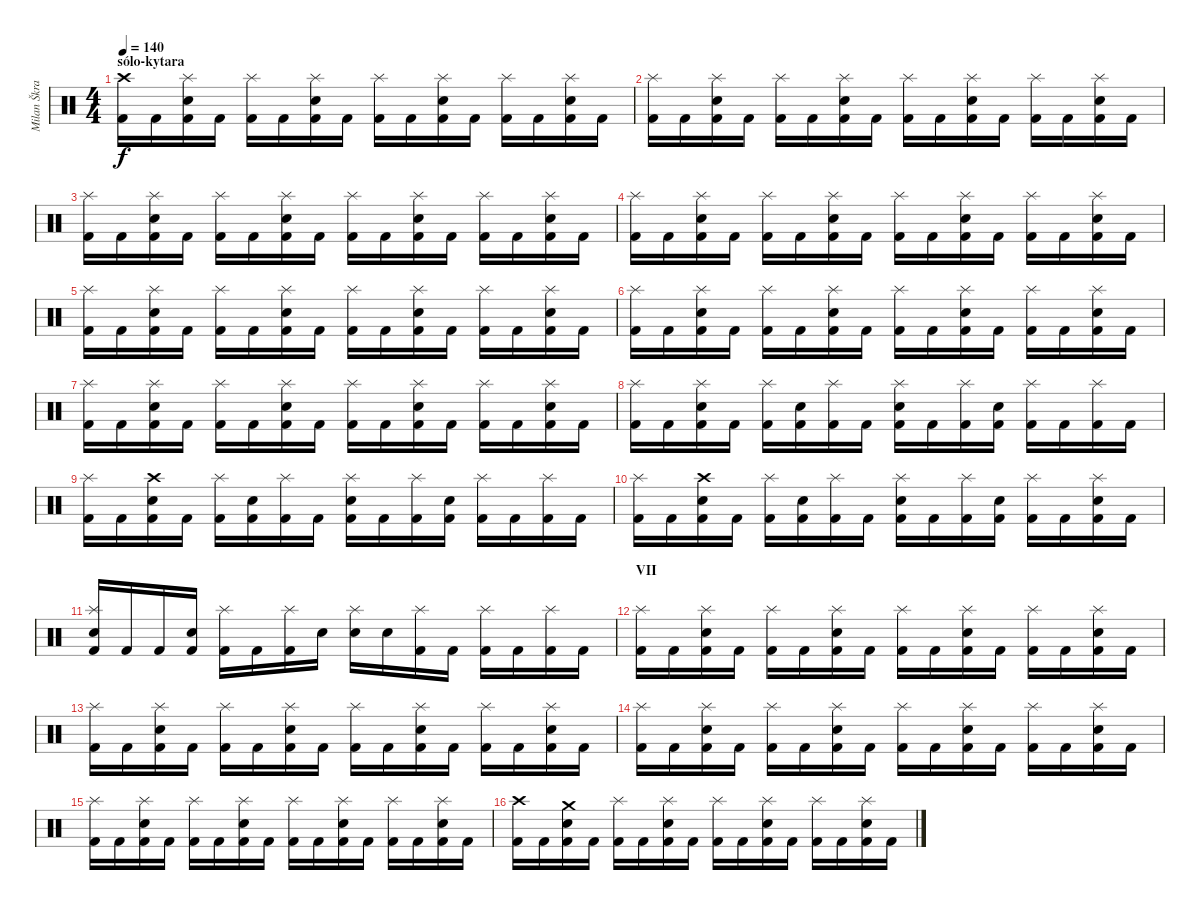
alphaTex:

\track ("Milan Škrabal" "Milan Škra") {instrument percussion}
\staff {score}
\articulation defaults
\ts (4 4)
\section ("" "sólo-kytara")
\tempo 140
\clef neutral
\ks c
("Crash high (hit)" "Kick (hit) 2").16{dy f} "Kick (hit) 2".16 ("Splash (hit)" "Electric Snare (hit)" "Kick (hit) 2").16 "Kick (hit) 2".16 ("Splash (hit)" "Kick (hit) 2").16 "Kick (hit) 2".16 ("Splash (hit)" "Electric Snare (hit)" "Kick (hit) 2").16 "Kick (hit) 2".16 ("Splash (hit)" "Kick (hit) 2").16 "Kick (hit) 2".16 ("Splash (hit)" "Electric Snare (hit)" "Kick (hit) 2").16 "Kick (hit) 2".16 ("Splash (hit)" "Kick (hit) 2").16 "Kick (hit) 2".16 ("Splash (hit)" "Electric Snare (hit)" "Kick (hit) 2").16 "Kick (hit) 2".16 |
("Splash (hit)" "Kick (hit) 2").16 "Kick (hit) 2".16 ("Splash (hit)" "Electric Snare (hit)" "Kick (hit) 2").16 "Kick (hit) 2".16 ("Splash (hit)" "Kick (hit) 2").16 "Kick (hit) 2".16 ("Splash (hit)" "Electric Snare (hit)" "Kick (hit) 2").16 "Kick (hit) 2".16 ("Splash (hit)" "Kick (hit) 2").16 "Kick (hit) 2".16 ("Splash (hit)" "Electric Snare (hit)" "Kick (hit) 2").16 "Kick (hit) 2".16 ("Splash (hit)" "Kick (hit) 2").16 "Kick (hit) 2".16 ("Splash (hit)" "Electric Snare (hit)" "Kick (hit) 2").16 "Kick (hit) 2".16 |
("Splash (hit)" "Kick (hit) 2").16 "Kick (hit) 2".16 ("Splash (hit)" "Electric Snare (hit)" "Kick (hit) 2").16 "Kick (hit) 2".16 ("Splash (hit)" "Kick (hit) 2").16 "Kick (hit) 2".16 ("Splash (hit)" "Electric Snare (hit)" "Kick (hit) 2").16 "Kick (hit) 2".16 ("Splash (hit)" "Kick (hit) 2").16 "Kick (hit) 2".16 ("Splash (hit)" "Electric Snare (hit)" "Kick (hit) 2").16 "Kick (hit) 2".16 ("Splash (hit)" "Kick (hit) 2").16 "Kick (hit) 2".16 ("Splash (hit)" "Electric Snare (hit)" "Kick (hit) 2").16 "Kick (hit) 2".16 |
("Splash (hit)" "Kick (hit) 2").16 "Kick (hit) 2".16 ("Splash (hit)" "Electric Snare (hit)" "Kick (hit) 2").16 "Kick (hit) 2".16 ("Splash (hit)" "Kick (hit) 2").16 "Kick (hit) 2".16 ("Splash (hit)" "Electric Snare (hit)" "Kick (hit) 2").16 "Kick (hit) 2".16 ("Splash (hit)" "Kick (hit) 2").16 "Kick (hit) 2".16 ("Splash (hit)" "Electric Snare (hit)" "Kick (hit) 2").16 "Kick (hit) 2".16 ("Splash (hit)" "Kick (hit) 2").16 "Kick (hit) 2".16 ("Splash (hit)" "Electric Snare (hit)" "Kick (hit) 2").16 "Kick (hit) 2".16 |
("Splash (hit)" "Kick (hit) 2").16 "Kick (hit) 2".16 ("Splash (hit)" "Electric Snare (hit)" "Kick (hit) 2").16 "Kick (hit) 2".16 ("Splash (hit)" "Kick (hit) 2").16 "Kick (hit) 2".16 ("Splash (hit)" "Electric Snare (hit)" "Kick (hit) 2").16 "Kick (hit) 2".16 ("Splash (hit)" "Kick (hit) 2").16 "Kick (hit) 2".16 ("Splash (hit)" "Electric Snare (hit)" "Kick (hit) 2").16 "Kick (hit) 2".16 ("Splash (hit)" "Kick (hit) 2").16 "Kick (hit) 2".16 ("Splash (hit)" "Electric Snare (hit)" "Kick (hit) 2").16 "Kick (hit) 2".16 |
("Splash (hit)" "Kick (hit) 2").16 "Kick (hit) 2".16 ("Splash (hit)" "Electric Snare (hit)" "Kick (hit) 2").16 "Kick (hit) 2".16 ("Splash (hit)" "Kick (hit) 2").16 "Kick (hit) 2".16 ("Splash (hit)" "Electric Snare (hit)" "Kick (hit) 2").16 "Kick (hit) 2".16 ("Splash (hit)" "Kick (hit) 2").16 "Kick (hit) 2".16 ("Splash (hit)" "Electric Snare (hit)" "Kick (hit) 2").16 "Kick (hit) 2".16 ("Splash (hit)" "Kick (hit) 2").16 "Kick (hit) 2".16 ("Splash (hit)" "Electric Snare (hit)" "Kick (hit) 2").16 "Kick (hit) 2".16 |
("Splash (hit)" "Kick (hit) 2").16 "Kick (hit) 2".16 ("Splash (hit)" "Electric Snare (hit)" "Kick (hit) 2").16 "Kick (hit) 2".16 ("Splash (hit)" "Kick (hit) 2").16 "Kick (hit) 2".16 ("Splash (hit)" "Electric Snare (hit)" "Kick (hit) 2").16 "Kick (hit) 2".16 ("Splash (hit)" "Kick (hit) 2").16 "Kick (hit) 2".16 ("Splash (hit)" "Electric Snare (hit)" "Kick (hit) 2").16 "Kick (hit) 2".16 ("Splash (hit)" "Kick (hit) 2").16 "Kick (hit) 2".16 ("Splash (hit)" "Electric Snare (hit)" "Kick (hit) 2").16 "Kick (hit) 2".16 |
("Splash (hit)" "Kick (hit) 2").16 "Kick (hit) 2".16 ("Splash (hit)" "Electric Snare (hit)" "Kick (hit) 2").16 "Kick (hit) 2".16 ("Splash (hit)" "Kick (hit) 2").16 ("Electric Snare (hit)" "Kick (hit) 2").16 ("Splash (hit)" "Kick (hit) 2").16 "Kick (hit) 2".16 ("Splash (hit)" "Electric Snare (hit)" "Kick (hit) 2").16 "Kick (hit) 2".16 ("Splash (hit)" "Kick (hit) 2").16 ("Electric Snare (hit)" "Kick (hit) 2").16 ("Splash (hit)" "Kick (hit) 2").16 "Kick (hit) 2".16 ("Splash (hit)" "Kick (hit) 2").16 "Kick (hit) 2".16 |
("Splash (hit)" "Kick (hit) 2").16 "Kick (hit) 2".16 ("Crash high (hit)" "Electric Snare (hit)" "Kick (hit) 2").16 "Kick (hit) 2".16 ("Splash (hit)" "Kick (hit) 2").16 ("Electric Snare (hit)" "Kick (hit) 2").16 ("Splash (hit)" "Kick (hit) 2").16 "Kick (hit) 2".16 ("Splash (hit)" "Electric Snare (hit)" "Kick (hit) 2").16 "Kick (hit) 2".16 ("Splash (hit)" "Kick (hit) 2").16 ("Electric Snare (hit)" "Kick (hit) 2").16 ("Splash (hit)" "Kick (hit) 2").16 "Kick (hit) 2".16 ("Splash (hit)" "Kick (hit) 2").16 "Kick (hit) 2".16 |
("Splash (hit)" "Kick (hit) 2").16 "Kick (hit) 2".16 ("Crash high (hit)" "Electric Snare (hit)" "Kick (hit) 2").16 "Kick (hit) 2".16 ("Splash (hit)" "Kick (hit) 2").16 ("Electric Snare (hit)" "Kick (hit) 2").16 ("Splash (hit)" "Kick (hit) 2").16 "Kick (hit) 2".16 ("Splash (hit)" "Electric Snare (hit)" "Kick (hit) 2").16 "Kick (hit) 2".16 ("Splash (hit)" "Kick (hit) 2").16 ("Electric Snare (hit)" "Kick (hit) 2").16 ("Splash (hit)" "Kick (hit) 2").16 "Kick (hit) 2".16 ("Splash (hit)" "Electric Snare (hit)" "Kick (hit) 2").16 "Kick (hit) 2".16 |
("Splash (hit)" "Electric Snare (hit)" "Kick (hit) 2").16 "Kick (hit) 2".16 "Kick (hit) 2".16 ("Electric Snare (hit)" "Kick (hit) 2").16 ("Splash (hit)" "Kick (hit) 2").16 "Kick (hit) 2".16 ("Splash (hit)" "Kick (hit) 2").16 "Electric Snare (hit)".16 ("Splash (hit)" "Electric Snare (hit)").16 "Electric Snare (hit)".16 ("Splash (hit)" "Kick (hit) 2").16 "Kick (hit) 2".16 ("Splash (hit)" "Kick (hit) 2").16 "Kick (hit) 2".16 ("Splash (hit)" "Kick (hit) 2").16 "Kick (hit) 2".16 |
\section ("" "VII")
("Splash (hit)" "Kick (hit) 2").16 "Kick (hit) 2".16 ("Splash (hit)" "Electric Snare (hit)" "Kick (hit) 2").16 "Kick (hit) 2".16 ("Splash (hit)" "Kick (hit) 2").16 "Kick (hit) 2".16 ("Splash (hit)" "Electric Snare (hit)" "Kick (hit) 2").16 "Kick (hit) 2".16 ("Splash (hit)" "Kick (hit) 2").16 "Kick (hit) 2".16 ("Splash (hit)" "Electric Snare (hit)" "Kick (hit) 2").16 "Kick (hit) 2".16 ("Splash (hit)" "Kick (hit) 2").16 "Kick (hit) 2".16 ("Splash (hit)" "Electric Snare (hit)" "Kick (hit) 2").16 "Kick (hit) 2".16 |
("Splash (hit)" "Kick (hit) 2").16 "Kick (hit) 2".16 ("Splash (hit)" "Electric Snare (hit)" "Kick (hit) 2").16 "Kick (hit) 2".16 ("Splash (hit)" "Kick (hit) 2").16 "Kick (hit) 2".16 ("Splash (hit)" "Electric Snare (hit)" "Kick (hit) 2").16 "Kick (hit) 2".16 ("Splash (hit)" "Kick (hit) 2").16 "Kick (hit) 2".16 ("Splash (hit)" "Electric Snare (hit)" "Kick (hit) 2").16 "Kick (hit) 2".16 ("Splash (hit)" "Kick (hit) 2").16 "Kick (hit) 2".16 ("Splash (hit)" "Electric Snare (hit)" "Kick (hit) 2").16 "Kick (hit) 2".16 |
("Splash (hit)" "Kick (hit) 2").16 "Kick (hit) 2".16 ("Splash (hit)" "Electric Snare (hit)" "Kick (hit) 2").16 "Kick (hit) 2".16 ("Splash (hit)" "Kick (hit) 2").16 "Kick (hit) 2".16 ("Splash (hit)" "Electric Snare (hit)" "Kick (hit) 2").16 "Kick (hit) 2".16 ("Splash (hit)" "Kick (hit) 2").16 "Kick (hit) 2".16 ("Splash (hit)" "Electric Snare (hit)" "Kick (hit) 2").16 "Kick (hit) 2".16 ("Splash (hit)" "Kick (hit) 2").16 "Kick (hit) 2".16 ("Splash (hit)" "Electric Snare (hit)" "Kick (hit) 2").16 "Kick (hit) 2".16 |
("Splash (hit)" "Kick (hit) 2").16 "Kick (hit) 2".16 ("Splash (hit)" "Electric Snare (hit)" "Kick (hit) 2").16 "Kick (hit) 2".16 ("Splash (hit)" "Kick (hit) 2").16 "Kick (hit) 2".16 ("Splash (hit)" "Electric Snare (hit)" "Kick (hit) 2").16 "Kick (hit) 2".16 ("Splash (hit)" "Kick (hit) 2").16 "Kick (hit) 2".16 ("Splash (hit)" "Electric Snare (hit)" "Kick (hit) 2").16 "Kick (hit) 2".16 ("Splash (hit)" "Kick (hit) 2").16 "Kick (hit) 2".16 ("Splash (hit)" "Electric Snare (hit)" "Kick (hit) 2").16 "Kick (hit) 2".16 |
("Crash high (hit)" "Kick (hit) 2").16 "Kick (hit) 2".16 ("Crash medium (hit)" "Electric Snare (hit)" "Kick (hit) 2").16 "Kick (hit) 2".16 ("Splash (hit)" "Kick (hit) 2").16 "Kick (hit) 2".16 ("Splash (hit)" "Electric Snare (hit)" "Kick (hit) 2").16 "Kick (hit) 2".16 ("Splash (hit)" "Kick (hit) 2").16 "Kick (hit) 2".16 ("Splash (hit)" "Electric Snare (hit)" "Kick (hit) 2").16 "Kick (hit) 2".16 ("Splash (hit)" "Kick (hit) 2").16 "Kick (hit) 2".16 ("Splash (hit)" "Electric Snare (hit)" "Kick (hit) 2").16 "Kick (hit) 2".16
